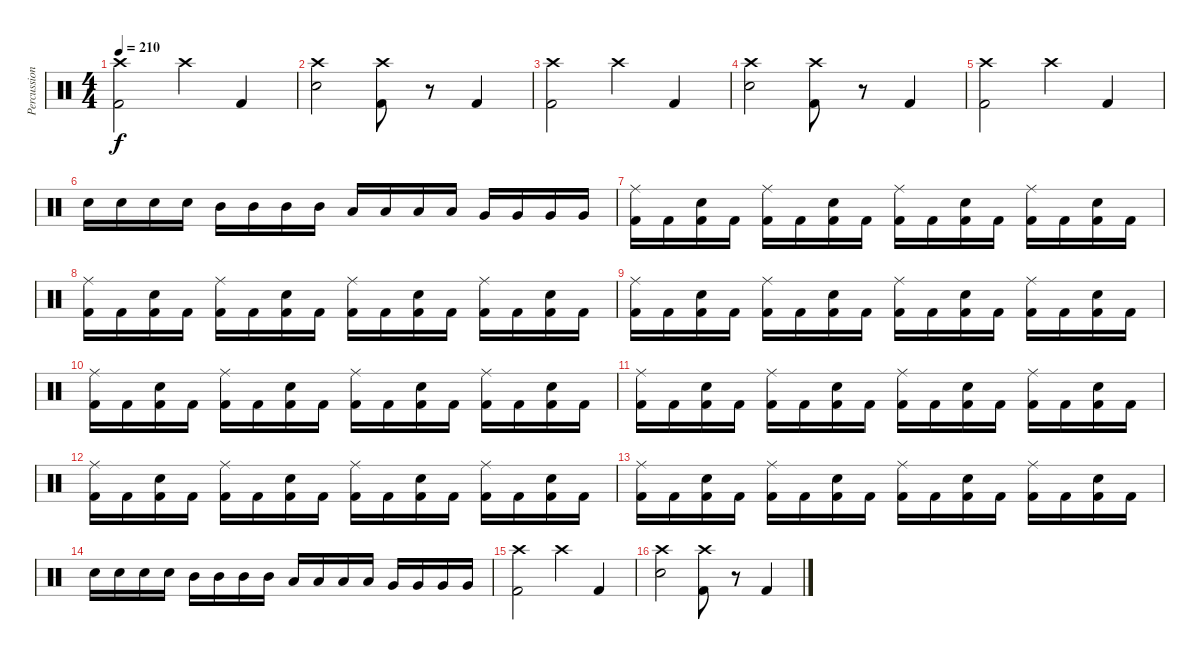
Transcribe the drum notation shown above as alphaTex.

\track ("Percussion" "Percussion") {instrument percussion}
\staff {score}
\articulation defaults
\ts (4 4)
\tempo 210
\clef neutral
\ks c
("Crash high (hit)" "Kick (hit) 2").2{dy f} "Crash high (hit)".4 "Kick (hit) 2".4 |
("Crash high (hit)" "Electric Snare (hit)").2 ("Crash high (hit)" "Kick (hit) 2").8 r.8 "Kick (hit) 2".4 |
("Crash high (hit)" "Kick (hit) 2").2 "Crash high (hit)".4 "Kick (hit) 2".4 |
("Crash high (hit)" "Electric Snare (hit)").2 ("Crash high (hit)" "Kick (hit) 2").8 r.8 "Kick (hit) 2".4 |
("Crash high (hit)" "Kick (hit) 2").2 "Crash high (hit)".4 "Kick (hit) 2".4 |
"Electric Snare (hit)".16 "Electric Snare (hit)".16 "Electric Snare (hit)".16 "Electric Snare (hit)".16 "Mid Tom (hit)".16 "Mid Tom (hit)".16 "Mid Tom (hit)".16 "Mid Tom (hit)".16 "Low Tom (hit)".16 "Low Tom (hit)".16 "Low Tom (hit)".16 "Low Tom (hit)".16 "Very Low Tom (hit)".16 "Very Low Tom (hit)".16 "Very Low Tom (hit)".16 "Very Low Tom (hit)".16 |
("Ride (middle)" "Kick (hit) 2").16 "Kick (hit) 2".16 ("Electric Snare (hit)" "Kick (hit) 2").16 "Kick (hit) 2".16 ("Ride (middle)" "Kick (hit) 2").16 "Kick (hit) 2".16 ("Electric Snare (hit)" "Kick (hit) 2").16 "Kick (hit) 2".16 ("Ride (middle)" "Kick (hit) 2").16 "Kick (hit) 2".16 ("Electric Snare (hit)" "Kick (hit) 2").16 "Kick (hit) 2".16 ("Ride (middle)" "Kick (hit) 2").16 "Kick (hit) 2".16 ("Electric Snare (hit)" "Kick (hit) 2").16 "Kick (hit) 2".16 |
("Ride (middle)" "Kick (hit) 2").16 "Kick (hit) 2".16 ("Electric Snare (hit)" "Kick (hit) 2").16 "Kick (hit) 2".16 ("Ride (middle)" "Kick (hit) 2").16 "Kick (hit) 2".16 ("Electric Snare (hit)" "Kick (hit) 2").16 "Kick (hit) 2".16 ("Ride (middle)" "Kick (hit) 2").16 "Kick (hit) 2".16 ("Electric Snare (hit)" "Kick (hit) 2").16 "Kick (hit) 2".16 ("Ride (middle)" "Kick (hit) 2").16 "Kick (hit) 2".16 ("Electric Snare (hit)" "Kick (hit) 2").16 "Kick (hit) 2".16 |
("Ride (middle)" "Kick (hit) 2").16 "Kick (hit) 2".16 ("Electric Snare (hit)" "Kick (hit) 2").16 "Kick (hit) 2".16 ("Ride (middle)" "Kick (hit) 2").16 "Kick (hit) 2".16 ("Electric Snare (hit)" "Kick (hit) 2").16 "Kick (hit) 2".16 ("Ride (middle)" "Kick (hit) 2").16 "Kick (hit) 2".16 ("Electric Snare (hit)" "Kick (hit) 2").16 "Kick (hit) 2".16 ("Ride (middle)" "Kick (hit) 2").16 "Kick (hit) 2".16 ("Electric Snare (hit)" "Kick (hit) 2").16 "Kick (hit) 2".16 |
("Ride (middle)" "Kick (hit) 2").16 "Kick (hit) 2".16 ("Electric Snare (hit)" "Kick (hit) 2").16 "Kick (hit) 2".16 ("Ride (middle)" "Kick (hit) 2").16 "Kick (hit) 2".16 ("Electric Snare (hit)" "Kick (hit) 2").16 "Kick (hit) 2".16 ("Ride (middle)" "Kick (hit) 2").16 "Kick (hit) 2".16 ("Electric Snare (hit)" "Kick (hit) 2").16 "Kick (hit) 2".16 ("Ride (middle)" "Kick (hit) 2").16 "Kick (hit) 2".16 ("Electric Snare (hit)" "Kick (hit) 2").16 "Kick (hit) 2".16 |
("Ride (middle)" "Kick (hit) 2").16 "Kick (hit) 2".16 ("Electric Snare (hit)" "Kick (hit) 2").16 "Kick (hit) 2".16 ("Ride (middle)" "Kick (hit) 2").16 "Kick (hit) 2".16 ("Electric Snare (hit)" "Kick (hit) 2").16 "Kick (hit) 2".16 ("Ride (middle)" "Kick (hit) 2").16 "Kick (hit) 2".16 ("Electric Snare (hit)" "Kick (hit) 2").16 "Kick (hit) 2".16 ("Ride (middle)" "Kick (hit) 2").16 "Kick (hit) 2".16 ("Electric Snare (hit)" "Kick (hit) 2").16 "Kick (hit) 2".16 |
("Ride (middle)" "Kick (hit) 2").16 "Kick (hit) 2".16 ("Electric Snare (hit)" "Kick (hit) 2").16 "Kick (hit) 2".16 ("Ride (middle)" "Kick (hit) 2").16 "Kick (hit) 2".16 ("Electric Snare (hit)" "Kick (hit) 2").16 "Kick (hit) 2".16 ("Ride (middle)" "Kick (hit) 2").16 "Kick (hit) 2".16 ("Electric Snare (hit)" "Kick (hit) 2").16 "Kick (hit) 2".16 ("Ride (middle)" "Kick (hit) 2").16 "Kick (hit) 2".16 ("Electric Snare (hit)" "Kick (hit) 2").16 "Kick (hit) 2".16 |
("Ride (middle)" "Kick (hit) 2").16 "Kick (hit) 2".16 ("Electric Snare (hit)" "Kick (hit) 2").16 "Kick (hit) 2".16 ("Ride (middle)" "Kick (hit) 2").16 "Kick (hit) 2".16 ("Electric Snare (hit)" "Kick (hit) 2").16 "Kick (hit) 2".16 ("Ride (middle)" "Kick (hit) 2").16 "Kick (hit) 2".16 ("Electric Snare (hit)" "Kick (hit) 2").16 "Kick (hit) 2".16 ("Ride (middle)" "Kick (hit) 2").16 "Kick (hit) 2".16 ("Electric Snare (hit)" "Kick (hit) 2").16 "Kick (hit) 2".16 |
"Electric Snare (hit)".16 "Electric Snare (hit)".16 "Electric Snare (hit)".16 "Electric Snare (hit)".16 "Mid Tom (hit)".16 "Mid Tom (hit)".16 "Mid Tom (hit)".16 "Mid Tom (hit)".16 "Low Tom (hit)".16 "Low Tom (hit)".16 "Low Tom (hit)".16 "Low Tom (hit)".16 "Very Low Tom (hit)".16 "Very Low Tom (hit)".16 "Very Low Tom (hit)".16 "Very Low Tom (hit)".16 |
("Crash high (hit)" "Kick (hit) 2").2 "Crash high (hit)".4 "Kick (hit) 2".4 |
("Crash high (hit)" "Electric Snare (hit)").2 ("Crash high (hit)" "Kick (hit) 2").8 r.8 "Kick (hit) 2".4
